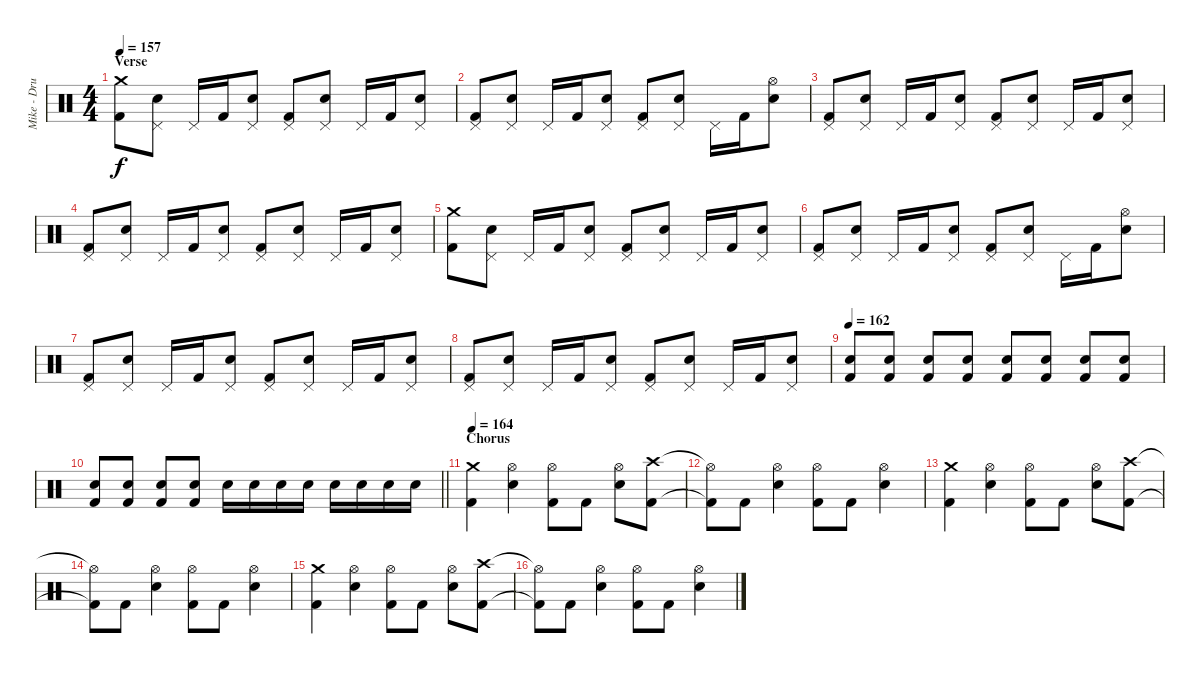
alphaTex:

\track ("Mike - Drums" "Mike - Dru") {instrument percussion}
\staff {score}
\articulation defaults
\ts (4 4)
\section ("" "Verse")
\tempo 157
\clef neutral
\ks c
("Crash medium (hit)" "Kick (hit) 2").8{dy f} ("Pedal Hi-Hat (hit)" "Electric Snare (hit)").8 "Pedal Hi-Hat (hit)".16 "Kick (hit) 2".16 ("Pedal Hi-Hat (hit)" "Electric Snare (hit)").8 ("Pedal Hi-Hat (hit)" "Kick (hit) 2").8 ("Pedal Hi-Hat (hit)" "Electric Snare (hit)").8 "Pedal Hi-Hat (hit)".16 "Kick (hit) 2".16 ("Pedal Hi-Hat (hit)" "Electric Snare (hit)").8 |
("Pedal Hi-Hat (hit)" "Kick (hit) 2").8 ("Pedal Hi-Hat (hit)" "Electric Snare (hit)").8 "Pedal Hi-Hat (hit)".16 "Kick (hit) 2".16 ("Pedal Hi-Hat (hit)" "Electric Snare (hit)").8 ("Pedal Hi-Hat (hit)" "Kick (hit) 2").8 ("Pedal Hi-Hat (hit)" "Electric Snare (hit)").8 "Pedal Hi-Hat (hit)".16 "Kick (hit) 2".16 ("Hi-Hat (open)" "Electric Snare (hit)").8 |
("Pedal Hi-Hat (hit)" "Kick (hit) 2").8 ("Pedal Hi-Hat (hit)" "Electric Snare (hit)").8 "Pedal Hi-Hat (hit)".16 "Kick (hit) 2".16 ("Pedal Hi-Hat (hit)" "Electric Snare (hit)").8 ("Pedal Hi-Hat (hit)" "Kick (hit) 2").8 ("Pedal Hi-Hat (hit)" "Electric Snare (hit)").8 "Pedal Hi-Hat (hit)".16 "Kick (hit) 2".16 ("Pedal Hi-Hat (hit)" "Electric Snare (hit)").8 |
("Pedal Hi-Hat (hit)" "Kick (hit) 2").8 ("Pedal Hi-Hat (hit)" "Electric Snare (hit)").8 "Pedal Hi-Hat (hit)".16 "Kick (hit) 2".16 ("Pedal Hi-Hat (hit)" "Electric Snare (hit)").8 ("Pedal Hi-Hat (hit)" "Kick (hit) 2").8 ("Pedal Hi-Hat (hit)" "Electric Snare (hit)").8 "Pedal Hi-Hat (hit)".16 "Kick (hit) 2".16 ("Pedal Hi-Hat (hit)" "Electric Snare (hit)").8 |
("Crash medium (hit)" "Kick (hit) 2").8 ("Pedal Hi-Hat (hit)" "Electric Snare (hit)").8 "Pedal Hi-Hat (hit)".16 "Kick (hit) 2".16 ("Pedal Hi-Hat (hit)" "Electric Snare (hit)").8 ("Pedal Hi-Hat (hit)" "Kick (hit) 2").8 ("Pedal Hi-Hat (hit)" "Electric Snare (hit)").8 "Pedal Hi-Hat (hit)".16 "Kick (hit) 2".16 ("Pedal Hi-Hat (hit)" "Electric Snare (hit)").8 |
("Pedal Hi-Hat (hit)" "Kick (hit) 2").8 ("Pedal Hi-Hat (hit)" "Electric Snare (hit)").8 "Pedal Hi-Hat (hit)".16 "Kick (hit) 2".16 ("Pedal Hi-Hat (hit)" "Electric Snare (hit)").8 ("Pedal Hi-Hat (hit)" "Kick (hit) 2").8 ("Pedal Hi-Hat (hit)" "Electric Snare (hit)").8 "Pedal Hi-Hat (hit)".16 "Kick (hit) 2".16 ("Hi-Hat (open)" "Electric Snare (hit)").8 |
("Pedal Hi-Hat (hit)" "Kick (hit) 2").8 ("Pedal Hi-Hat (hit)" "Electric Snare (hit)").8 "Pedal Hi-Hat (hit)".16 "Kick (hit) 2".16 ("Pedal Hi-Hat (hit)" "Electric Snare (hit)").8 ("Pedal Hi-Hat (hit)" "Kick (hit) 2").8 ("Pedal Hi-Hat (hit)" "Electric Snare (hit)").8 "Pedal Hi-Hat (hit)".16 "Kick (hit) 2".16 ("Pedal Hi-Hat (hit)" "Electric Snare (hit)").8 |
("Pedal Hi-Hat (hit)" "Kick (hit) 2").8 ("Pedal Hi-Hat (hit)" "Electric Snare (hit)").8 "Pedal Hi-Hat (hit)".16 "Kick (hit) 2".16 ("Pedal Hi-Hat (hit)" "Electric Snare (hit)").8 ("Pedal Hi-Hat (hit)" "Kick (hit) 2").8 ("Pedal Hi-Hat (hit)" "Electric Snare (hit)").8 "Pedal Hi-Hat (hit)".16 "Kick (hit) 2".16 ("Pedal Hi-Hat (hit)" "Electric Snare (hit)").8 |
\tempo 162
("Electric Snare (hit)" "Kick (hit) 2").8{volume 6} ("Electric Snare (hit)" "Kick (hit) 2").8{volume 12} ("Electric Snare (hit)" "Kick (hit) 2").8 ("Electric Snare (hit)" "Kick (hit) 2").8 ("Electric Snare (hit)" "Kick (hit) 2").8 ("Electric Snare (hit)" "Kick (hit) 2").8 ("Electric Snare (hit)" "Kick (hit) 2").8 ("Electric Snare (hit)" "Kick (hit) 2").8 |
\barLineRight lightlight
("Electric Snare (hit)" "Kick (hit) 2").8 ("Electric Snare (hit)" "Kick (hit) 2").8 ("Electric Snare (hit)" "Kick (hit) 2").8 ("Electric Snare (hit)" "Kick (hit) 2").8 "Electric Snare (hit)".16 "Electric Snare (hit)".16 "Electric Snare (hit)".16 "Electric Snare (hit)".16 "Electric Snare (hit)".16 "Electric Snare (hit)".16 "Electric Snare (hit)".16 "Electric Snare (hit)".16 |
\section ("" "Chorus")
\tempo 164
("Crash medium (hit)" "Kick (hit) 2").4 ("Hi-Hat (open)" "Electric Snare (hit)").4 ("Hi-Hat (open)" "Kick (hit) 2").8 "Kick (hit) 2".8 ("Hi-Hat (open)" "Electric Snare (hit)").8 ("Crash high (hit)" "Kick (hit) 2").8 |
("Hi-Hat (open)"{t} "Kick (hit) 2"{t}).8 "Kick (hit) 2".8 ("Hi-Hat (open)" "Electric Snare (hit)").4 ("Hi-Hat (open)" "Kick (hit) 2").8 "Kick (hit) 2".8 ("Hi-Hat (open)" "Electric Snare (hit)").4 |
("Crash medium (hit)" "Kick (hit) 2").4 ("Hi-Hat (open)" "Electric Snare (hit)").4 ("Hi-Hat (open)" "Kick (hit) 2").8 "Kick (hit) 2".8 ("Hi-Hat (open)" "Electric Snare (hit)").8 ("Crash high (hit)" "Kick (hit) 2").8 |
("Hi-Hat (open)"{t} "Kick (hit) 2"{t}).8 "Kick (hit) 2".8 ("Hi-Hat (open)" "Electric Snare (hit)").4 ("Hi-Hat (open)" "Kick (hit) 2").8 "Kick (hit) 2".8 ("Hi-Hat (open)" "Electric Snare (hit)").4 |
("Crash medium (hit)" "Kick (hit) 2").4 ("Hi-Hat (open)" "Electric Snare (hit)").4 ("Hi-Hat (open)" "Kick (hit) 2").8 "Kick (hit) 2".8 ("Hi-Hat (open)" "Electric Snare (hit)").8 ("Crash high (hit)" "Kick (hit) 2").8 |
("Hi-Hat (open)"{t} "Kick (hit) 2"{t}).8 "Kick (hit) 2".8 ("Hi-Hat (open)" "Electric Snare (hit)").4 ("Hi-Hat (open)" "Kick (hit) 2").8 "Kick (hit) 2".8 ("Hi-Hat (open)" "Electric Snare (hit)").4
